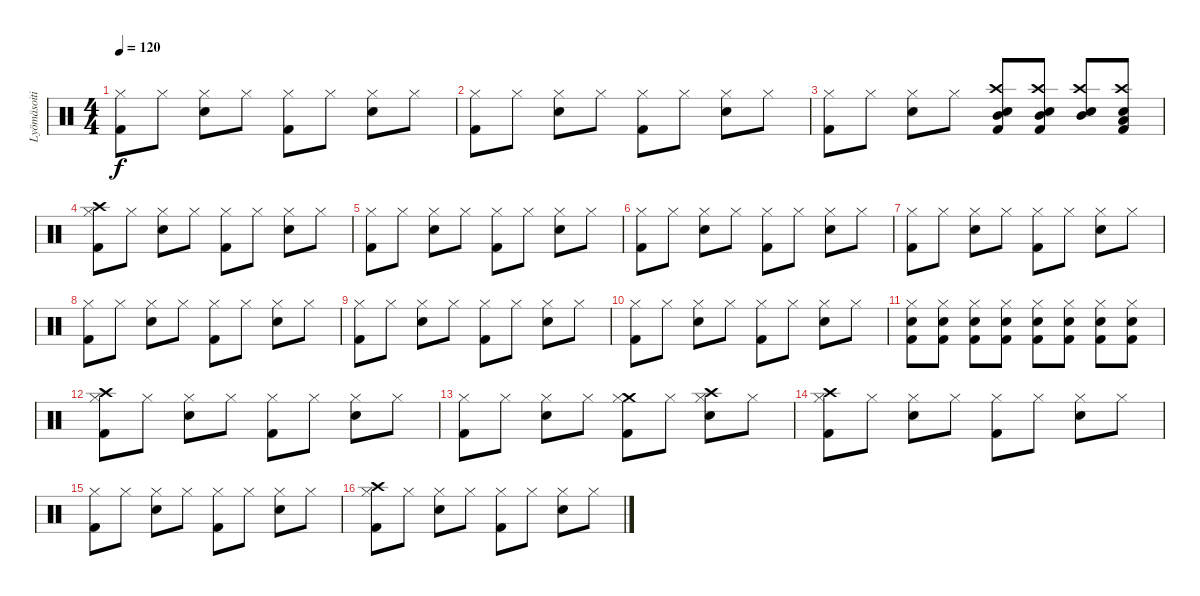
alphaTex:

\track ("Lyömäsoitin" "Lyömäsoiti") {instrument percussion}
\staff {score}
\articulation defaults
\ts (4 4)
\tempo 120
\clef neutral
\ks c
("Hi-Hat (closed)" "Kick (hit) 2").8{dy f} "Hi-Hat (closed)".8 ("Hi-Hat (closed)" "Electric Snare (hit)").8 "Hi-Hat (closed)".8 ("Hi-Hat (closed)" "Kick (hit) 2").8 "Hi-Hat (closed)".8 ("Hi-Hat (closed)" "Electric Snare (hit)").8 "Hi-Hat (closed)".8 |
("Hi-Hat (closed)" "Kick (hit) 2").8 "Hi-Hat (closed)".8 ("Hi-Hat (closed)" "Electric Snare (hit)").8 "Hi-Hat (closed)".8 ("Hi-Hat (closed)" "Kick (hit) 2").8 "Hi-Hat (closed)".8 ("Hi-Hat (closed)" "Electric Snare (hit)").8 "Hi-Hat (closed)".8 |
("Hi-Hat (closed)" "Kick (hit) 2").8 "Hi-Hat (closed)".8 ("Hi-Hat (closed)" "Electric Snare (hit)").8 "Hi-Hat (closed)".8 ("Crash high (hit)" "Mid Tom (hit)" "Electric Snare (hit)" "Kick (hit) 2").8 ("Crash high (hit)" "Mid Tom (hit)" "Electric Snare (hit)" "Kick (hit) 2").8 ("Crash high (hit)" "Mid Tom (hit)" "Electric Snare (hit)").8 ("Crash high (hit)" "Low Tom (hit)" "Electric Snare (hit)" "Kick (hit) 2").8 |
("Crash high (hit)" "Hi-Hat (closed)" "Kick (hit) 2").8 "Hi-Hat (closed)".8 ("Hi-Hat (closed)" "Electric Snare (hit)").8 "Hi-Hat (closed)".8 ("Hi-Hat (closed)" "Kick (hit) 2").8 "Hi-Hat (closed)".8 ("Hi-Hat (closed)" "Electric Snare (hit)").8 "Hi-Hat (closed)".8 |
("Hi-Hat (closed)" "Kick (hit) 2").8 "Hi-Hat (closed)".8 ("Hi-Hat (closed)" "Electric Snare (hit)").8 "Hi-Hat (closed)".8 ("Hi-Hat (closed)" "Kick (hit) 2").8 "Hi-Hat (closed)".8 ("Hi-Hat (closed)" "Electric Snare (hit)").8 "Hi-Hat (closed)".8 |
("Hi-Hat (closed)" "Kick (hit) 2").8 "Hi-Hat (closed)".8 ("Hi-Hat (closed)" "Electric Snare (hit)").8 "Hi-Hat (closed)".8 ("Hi-Hat (closed)" "Kick (hit) 2").8 "Hi-Hat (closed)".8 ("Hi-Hat (closed)" "Electric Snare (hit)").8 "Hi-Hat (closed)".8 |
("Hi-Hat (closed)" "Kick (hit) 2").8 "Hi-Hat (closed)".8 ("Hi-Hat (closed)" "Electric Snare (hit)").8 "Hi-Hat (closed)".8 ("Hi-Hat (closed)" "Kick (hit) 2").8 "Hi-Hat (closed)".8 ("Hi-Hat (closed)" "Electric Snare (hit)").8 "Hi-Hat (closed)".8 |
("Hi-Hat (closed)" "Kick (hit) 2").8 "Hi-Hat (closed)".8 ("Hi-Hat (closed)" "Electric Snare (hit)").8 "Hi-Hat (closed)".8 ("Hi-Hat (closed)" "Kick (hit) 2").8 "Hi-Hat (closed)".8 ("Hi-Hat (closed)" "Electric Snare (hit)").8 "Hi-Hat (closed)".8 |
("Hi-Hat (closed)" "Kick (hit) 2").8 "Hi-Hat (closed)".8 ("Hi-Hat (closed)" "Electric Snare (hit)").8 "Hi-Hat (closed)".8 ("Hi-Hat (closed)" "Kick (hit) 2").8 "Hi-Hat (closed)".8 ("Hi-Hat (closed)" "Electric Snare (hit)").8 "Hi-Hat (closed)".8 |
("Hi-Hat (closed)" "Kick (hit) 2").8 "Hi-Hat (closed)".8 ("Hi-Hat (closed)" "Electric Snare (hit)").8 "Hi-Hat (closed)".8 ("Hi-Hat (closed)" "Kick (hit) 2").8 "Hi-Hat (closed)".8 ("Hi-Hat (closed)" "Electric Snare (hit)").8 "Hi-Hat (closed)".8 |
("Hi-Hat (closed)" "Electric Snare (hit)" "Kick (hit) 2").8 ("Hi-Hat (closed)" "Electric Snare (hit)" "Kick (hit) 2").8 ("Hi-Hat (closed)" "Electric Snare (hit)" "Kick (hit) 2").8 ("Hi-Hat (closed)" "Electric Snare (hit)" "Kick (hit) 2").8 ("Hi-Hat (closed)" "Electric Snare (hit)" "Kick (hit) 2").8 ("Hi-Hat (closed)" "Electric Snare (hit)" "Kick (hit) 2").8 ("Hi-Hat (closed)" "Electric Snare (hit)" "Kick (hit) 2").8 ("Hi-Hat (closed)" "Electric Snare (hit)" "Kick (hit) 2").8 |
("Crash high (hit)" "Hi-Hat (closed)" "Kick (hit) 2").8 "Hi-Hat (closed)".8 ("Hi-Hat (closed)" "Electric Snare (hit)").8 "Hi-Hat (closed)".8 ("Hi-Hat (closed)" "Kick (hit) 2").8 "Hi-Hat (closed)".8 ("Hi-Hat (closed)" "Electric Snare (hit)").8 "Hi-Hat (closed)".8 |
("Hi-Hat (closed)" "Kick (hit) 2").8 "Hi-Hat (closed)".8 ("Hi-Hat (closed)" "Electric Snare (hit)").8 "Hi-Hat (closed)".8 ("Crash medium (hit)" "Hi-Hat (closed)" "Kick (hit) 2").8 "Hi-Hat (closed)".8 ("Crash high (hit)" "Hi-Hat (closed)" "Electric Snare (hit)").8 "Hi-Hat (closed)".8 |
("Crash high (hit)" "Hi-Hat (closed)" "Kick (hit) 2").8 "Hi-Hat (closed)".8 ("Hi-Hat (closed)" "Electric Snare (hit)").8 "Hi-Hat (closed)".8 ("Hi-Hat (closed)" "Kick (hit) 2").8 "Hi-Hat (closed)".8 ("Hi-Hat (closed)" "Electric Snare (hit)").8 "Hi-Hat (closed)".8 |
("Hi-Hat (closed)" "Kick (hit) 2").8 "Hi-Hat (closed)".8 ("Hi-Hat (closed)" "Electric Snare (hit)").8 "Hi-Hat (closed)".8 ("Hi-Hat (closed)" "Kick (hit) 2").8 "Hi-Hat (closed)".8 ("Hi-Hat (closed)" "Electric Snare (hit)").8 "Hi-Hat (closed)".8 |
("Crash high (hit)" "Hi-Hat (closed)" "Kick (hit) 2").8 "Hi-Hat (closed)".8 ("Hi-Hat (closed)" "Electric Snare (hit)").8 "Hi-Hat (closed)".8 ("Hi-Hat (closed)" "Kick (hit) 2").8 "Hi-Hat (closed)".8 ("Hi-Hat (closed)" "Electric Snare (hit)").8 "Hi-Hat (closed)".8
